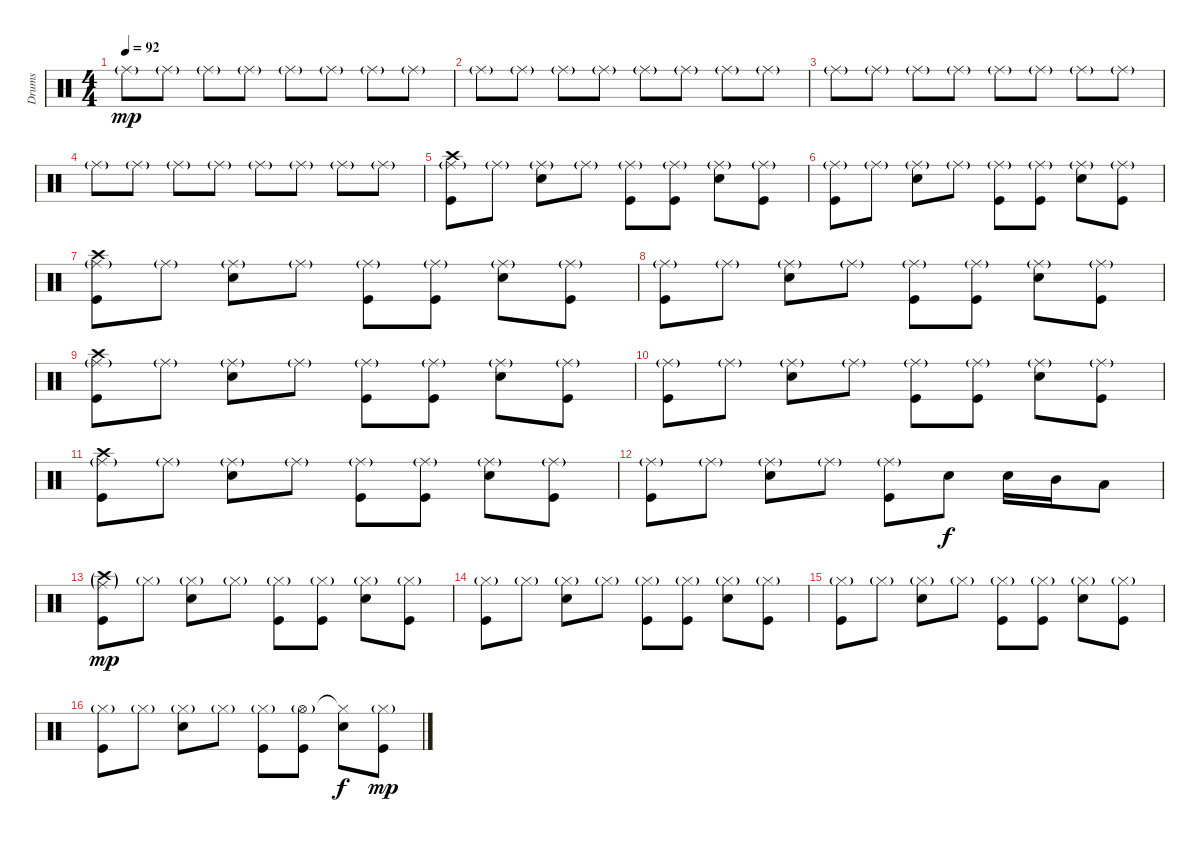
\track ("Drums" "Drums") {instrument percussion}
\staff {score}
\articulation defaults
\ts (4 4)
\tempo 92
\clef neutral
\ks c "Ride (middle)"{g}.8{dy mp} "Ride (middle)"{g}.8 "Ride (middle)"{g}.8 "Ride (middle)"{g}.8 "Ride (middle)"{g}.8 "Ride (middle)"{g}.8 "Ride (middle)"{g}.8 "Ride (middle)"{g}.8
|
"Ride (middle)"{g}.8 "Ride (middle)"{g}.8 "Ride (middle)"{g}.8 "Ride (middle)"{g}.8 "Ride (middle)"{g}.8 "Ride (middle)"{g}.8 "Ride (middle)"{g}.8 "Ride (middle)"{g}.8 |
"Ride (middle)"{g}.8 "Ride (middle)"{g}.8 "Ride (middle)"{g}.8 "Ride (middle)"{g}.8 "Ride (middle)"{g}.8 "Ride (middle)"{g}.8 "Ride (middle)"{g}.8 "Ride (middle)"{g}.8 |
"Ride (middle)"{g}.8 "Ride (middle)"{g}.8 "Ride (middle)"{g}.8 "Ride (middle)"{g}.8 "Ride (middle)"{g}.8 "Ride (middle)"{g}.8 "Ride (middle)"{g}.8 "Ride (middle)"{g}.8 |
("Ride (middle)"{g} "Crash high (hit)" "Kick (hit)").8 "Ride (middle)"{g}.8 ("Ride (middle)"{g} "Snare (hit) 2").8 "Ride (middle)"{g}.8 ("Ride (middle)"{g} "Kick (hit)").8 ("Ride (middle)"{g} "Kick (hit)").8 ("Ride (middle)"{g} "Snare (hit) 2").8 ("Ride (middle)"{g} "Kick (hit)").8 |
("Ride (middle)"{g} "Kick (hit)").8 "Ride (middle)"{g}.8 ("Ride (middle)"{g} "Snare (hit) 2").8 "Ride (middle)"{g}.8 ("Ride (middle)"{g} "Kick (hit)").8 ("Ride (middle)"{g} "Kick (hit)").8 ("Ride (middle)"{g} "Snare (hit) 2").8 ("Ride (middle)"{g} "Kick (hit)").8 |
("Ride (middle)"{g} "Crash high (hit)" "Kick (hit)").8 "Ride (middle)"{g}.8 ("Ride (middle)"{g} "Snare (hit) 2").8 "Ride (middle)"{g}.8 ("Ride (middle)"{g} "Kick (hit)").8 ("Ride (middle)"{g} "Kick (hit)").8 ("Ride (middle)"{g} "Snare (hit) 2").8 ("Ride (middle)"{g} "Kick (hit)").8 |
("Ride (middle)"{g} "Kick (hit)").8 "Ride (middle)"{g}.8 ("Ride (middle)"{g} "Snare (hit) 2").8 "Ride (middle)"{g}.8 ("Ride (middle)"{g} "Kick (hit)").8 ("Ride (middle)"{g} "Kick (hit)").8 ("Ride (middle)"{g} "Snare (hit) 2").8 ("Ride (middle)"{g} "Kick (hit)").8 |
("Ride (middle)"{g} "Crash high (hit)" "Kick (hit)").8 "Ride (middle)"{g}.8 ("Ride (middle)"{g} "Snare (hit) 2").8 "Ride (middle)"{g}.8 ("Ride (middle)"{g} "Kick (hit)").8 ("Ride (middle)"{g} "Kick (hit)").8 ("Ride (middle)"{g} "Snare (hit) 2").8 ("Ride (middle)"{g} "Kick (hit)").8 |
("Ride (middle)"{g} "Kick (hit)").8 "Ride (middle)"{g}.8 ("Ride (middle)"{g} "Snare (hit) 2").8 "Ride (middle)"{g}.8 ("Ride (middle)"{g} "Kick (hit)").8 ("Ride (middle)"{g} "Kick (hit)").8 ("Ride (middle)"{g} "Snare (hit) 2").8 ("Ride (middle)"{g} "Kick (hit)").8 |
("Ride (middle)"{g} "Crash high (hit)" "Kick (hit)").8 "Ride (middle)"{g}.8 ("Ride (middle)"{g} "Snare (hit) 2").8 "Ride (middle)"{g}.8 ("Ride (middle)"{g} "Kick (hit)").8 ("Ride (middle)"{g} "Kick (hit)").8 ("Ride (middle)"{g} "Snare (hit) 2").8 ("Ride (middle)"{g} "Kick (hit)").8 |
("Ride (middle)"{g} "Kick (hit)").8 "Ride (middle)"{g}.8 ("Ride (middle)"{g} "Snare (hit) 2").8 "Ride (middle)"{g}.8 ("Ride (middle)"{g} "Kick (hit)").8 "Snare (hit) 2".8{dy f} "Snare (hit) 2".16 "Mid Tom (hit)".16 "Low Tom (hit)".8 |
("Ride (middle)"{g} "Crash high (hit)"{g} "Kick (hit)").8{dy mp} "Hi-Hat (closed)"{g}.8 ("Hi-Hat (closed)"{g} "Snare (hit) 2").8 "Hi-Hat (closed)"{g}.8 ("Hi-Hat (closed)"{g} "Kick (hit)").8 ("Hi-Hat (closed)"{g} "Kick (hit)").8 ("Hi-Hat (closed)"{g} "Snare (hit) 2").8 ("Hi-Hat (closed)"{g} "Kick (hit)").8 |
("Hi-Hat (closed)"{g} "Kick (hit)").8 "Hi-Hat (closed)"{g}.8 ("Hi-Hat (closed)"{g} "Snare (hit) 2").8 "Hi-Hat (closed)"{g}.8 ("Hi-Hat (closed)"{g} "Kick (hit)").8 ("Hi-Hat (closed)"{g} "Kick (hit)").8 ("Hi-Hat (closed)"{g} "Snare (hit) 2").8 ("Hi-Hat (closed)"{g} "Kick (hit)").8 |
("Hi-Hat (closed)"{g} "Kick (hit)").8 "Hi-Hat (closed)"{g}.8 ("Hi-Hat (closed)"{g} "Snare (hit) 2").8 "Hi-Hat (closed)"{g}.8 ("Hi-Hat (closed)"{g} "Kick (hit)").8 ("Hi-Hat (closed)"{g} "Kick (hit)").8 ("Hi-Hat (closed)"{g} "Snare (hit) 2").8 ("Hi-Hat (closed)"{g} "Kick (hit)").8 |
("Hi-Hat (closed)"{g} "Kick (hit)").8 "Hi-Hat (closed)"{g}.8 ("Hi-Hat (closed)"{g} "Snare (hit) 2").8 "Hi-Hat (closed)"{g}.8 ("Hi-Hat (closed)"{g} "Kick (hit)").8 ("Hi-Hat (open)"{g} "Kick (hit)").8 ("Hi-Hat (closed)"{t} "Snare (hit) 2").8{dy f} ("Hi-Hat (closed)"{g} "Kick (hit)").8{dy mp}
